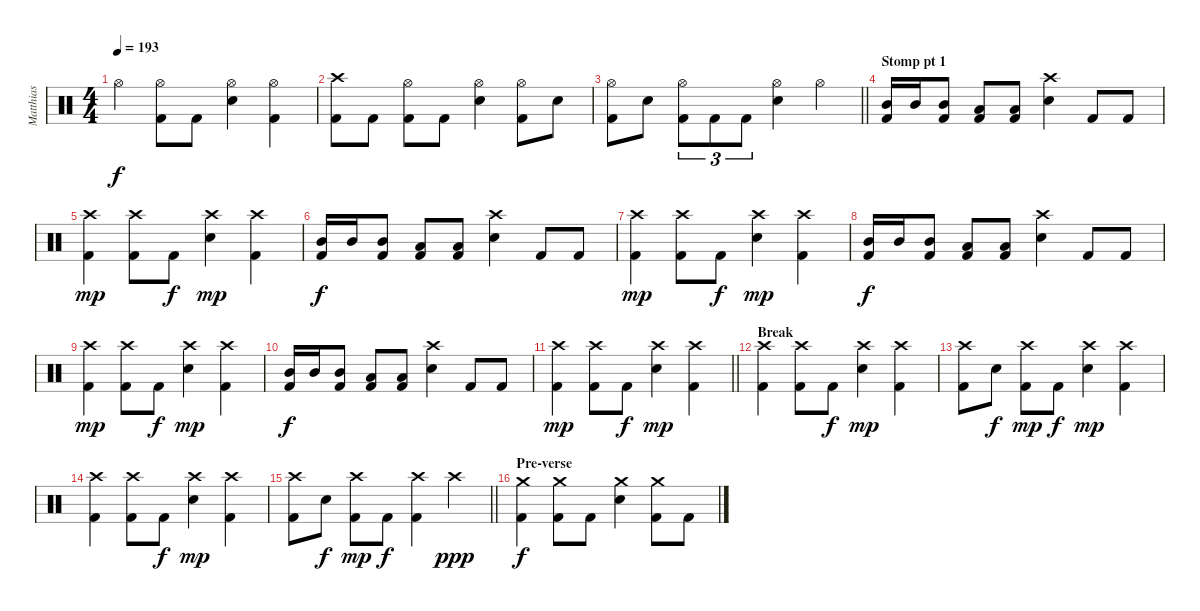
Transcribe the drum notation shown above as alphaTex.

\track ("Matthias" "Matthias") {instrument percussion}
\staff {score}
\articulation defaults
\ts (4 4)
\tempo 193
\clef neutral
\ks c "Hi-Hat (open)".4{dy f}
("Hi-Hat (open)" "Kick (hit) 2").8 "Kick (hit) 2".8 ("Hi-Hat (open)" "Electric Snare (hit)").4 ("Hi-Hat (open)" "Kick (hit) 2").4 |
("Crash high (hit)" "Kick (hit) 2").8 "Kick (hit) 2".8 ("Hi-Hat (open)" "Kick (hit) 2").8 "Kick (hit) 2".8 ("Hi-Hat (open)" "Electric Snare (hit)").4 ("Hi-Hat (open)" "Kick (hit) 2").8 "Electric Snare (hit)".8 |
\barLineRight lightlight
("Hi-Hat (open)" "Kick (hit) 2").8 "Electric Snare (hit)".8 ("Hi-Hat (open)" "Kick (hit) 2").8{tu (3 2)} "Kick (hit) 2".8{tu (3 2)} "Kick (hit) 2".8{tu (3 2)} ("Hi-Hat (open)" "Electric Snare (hit)").4 "Hi-Hat (open)".4 |
\section ("" "Stomp pt 1")
("Mid Tom (hit)" "Kick (hit) 2").16 "Mid Tom (hit)".16 ("Mid Tom (hit)" "Kick (hit) 2").8 ("Low Tom (hit)" "Kick (hit) 2").8 ("Low Tom (hit)" "Kick (hit) 2").8 ("Crash high (hit)" "Electric Snare (hit)").4 "Kick (hit) 2".8 "Kick (hit) 2".8 |
("Crash high (hit)" "Kick (hit) 2").4{dy mp} ("Crash high (hit)" "Kick (hit) 2").8 "Kick (hit) 2".8{dy f} ("Crash high (hit)" "Electric Snare (hit)").4{dy mp} ("Crash high (hit)" "Kick (hit) 2").4 |
("Mid Tom (hit)" "Kick (hit) 2").16{dy f} "Mid Tom (hit)".16 ("Mid Tom (hit)" "Kick (hit) 2").8 ("Low Tom (hit)" "Kick (hit) 2").8 ("Low Tom (hit)" "Kick (hit) 2").8 ("Crash high (hit)" "Electric Snare (hit)").4 "Kick (hit) 2".8 "Kick (hit) 2".8 |
("Crash high (hit)" "Kick (hit) 2").4{dy mp} ("Crash high (hit)" "Kick (hit) 2").8 "Kick (hit) 2".8{dy f} ("Crash high (hit)" "Electric Snare (hit)").4{dy mp} ("Crash high (hit)" "Kick (hit) 2").4 |
("Mid Tom (hit)" "Kick (hit) 2").16{dy f} "Mid Tom (hit)".16 ("Mid Tom (hit)" "Kick (hit) 2").8 ("Low Tom (hit)" "Kick (hit) 2").8 ("Low Tom (hit)" "Kick (hit) 2").8 ("Crash high (hit)" "Electric Snare (hit)").4 "Kick (hit) 2".8 "Kick (hit) 2".8 |
("Crash high (hit)" "Kick (hit) 2").4{dy mp} ("Crash high (hit)" "Kick (hit) 2").8 "Kick (hit) 2".8{dy f} ("Crash high (hit)" "Electric Snare (hit)").4{dy mp} ("Crash high (hit)" "Kick (hit) 2").4 |
("Mid Tom (hit)" "Kick (hit) 2").16{dy f} "Mid Tom (hit)".16 ("Mid Tom (hit)" "Kick (hit) 2").8 ("Low Tom (hit)" "Kick (hit) 2").8 ("Low Tom (hit)" "Kick (hit) 2").8 ("Crash high (hit)" "Electric Snare (hit)").4 "Kick (hit) 2".8 "Kick (hit) 2".8 |
\barLineRight lightlight
("Crash high (hit)" "Kick (hit) 2").4{dy mp} ("Crash high (hit)" "Kick (hit) 2").8 "Kick (hit) 2".8{dy f} ("Crash high (hit)" "Electric Snare (hit)").4{dy mp} ("Crash high (hit)" "Kick (hit) 2").4 |
\section ("" "Break")
("Crash high (hit)" "Kick (hit) 2").4 ("Crash high (hit)" "Kick (hit) 2").8 "Kick (hit) 2".8{dy f} ("Crash high (hit)" "Electric Snare (hit)").4{dy mp} ("Crash high (hit)" "Kick (hit) 2").4 |
("Crash high (hit)" "Kick (hit) 2").8 "Electric Snare (hit)".8{dy f} ("Crash high (hit)" "Kick (hit) 2").8{dy mp} "Kick (hit) 2".8{dy f} ("Crash high (hit)" "Electric Snare (hit)").4{dy mp} ("Crash high (hit)" "Kick (hit) 2").4 |
("Crash high (hit)" "Kick (hit) 2").4 ("Crash high (hit)" "Kick (hit) 2").8 "Kick (hit) 2".8{dy f} ("Crash high (hit)" "Electric Snare (hit)").4{dy mp} ("Crash high (hit)" "Kick (hit) 2").4 |
\barLineRight lightlight
("Crash high (hit)" "Kick (hit) 2").8 "Electric Snare (hit)".8{dy f} ("Crash high (hit)" "Kick (hit) 2").8{dy mp} "Kick (hit) 2".8{dy f} ("Crash high (hit)" "Kick (hit) 2").4 "Crash high (hit)".4{dy ppp} |
\section ("" "Pre-verse")
("Crash medium (hit)" "Kick (hit) 2").4{dy f} ("Crash medium (hit)" "Kick (hit) 2").8 "Kick (hit) 2".8 ("Crash medium (hit)" "Electric Snare (hit)").4 ("Crash medium (hit)" "Kick (hit) 2").8 "Kick (hit) 2".8
